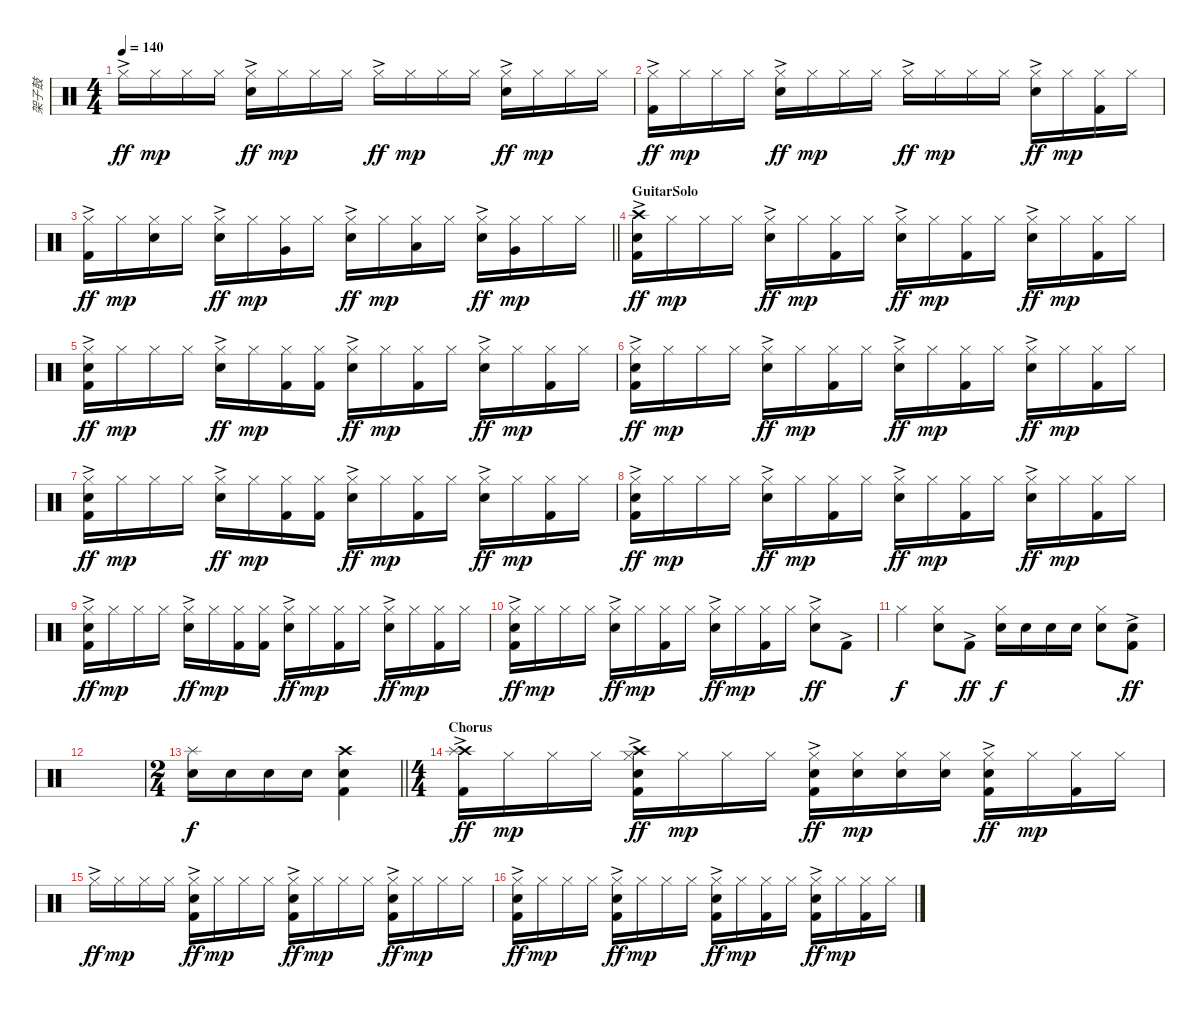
\track ("架子鼓" "架子鼓") {instrument percussion}
\staff {score}
\articulation defaults
\ts (4 4)
\tempo 140
\clef neutral
\ks c "Hi-Hat (closed)"{ac}.16{dy ff} "Hi-Hat (closed)".16{dy mp} "Hi-Hat (closed)".16 "Hi-Hat (closed)".16
("Hi-Hat (closed)"{ac} "Electric Snare (hit)").16{dy ff} "Hi-Hat (closed)".16{dy mp} "Hi-Hat (closed)".16 "Hi-Hat (closed)".16 "Hi-Hat (closed)"{ac}.16{dy ff} "Hi-Hat (closed)".16{dy mp} "Hi-Hat (closed)".16 "Hi-Hat (closed)".16 ("Hi-Hat (closed)"{ac} "Electric Snare (hit)").16{dy ff} "Hi-Hat (closed)".16{dy mp} "Hi-Hat (closed)".16 "Hi-Hat (closed)".16 |
("Hi-Hat (closed)"{ac} "Kick (hit) 2").16{dy ff} "Hi-Hat (closed)".16{dy mp} "Hi-Hat (closed)".16 "Hi-Hat (closed)".16 ("Hi-Hat (closed)"{ac} "Electric Snare (hit)").16{dy ff} "Hi-Hat (closed)".16{dy mp} "Hi-Hat (closed)".16 "Hi-Hat (closed)".16 "Hi-Hat (closed)"{ac}.16{dy ff} "Hi-Hat (closed)".16{dy mp} "Hi-Hat (closed)".16 "Hi-Hat (closed)".16 ("Hi-Hat (closed)"{ac} "Electric Snare (hit)").16{dy ff} "Hi-Hat (closed)".16{dy mp} ("Hi-Hat (closed)" "Kick (hit) 2").16 "Hi-Hat (closed)".16 |
\barLineRight lightlight
("Hi-Hat (closed)"{ac} "Kick (hit) 2").16{dy ff} "Hi-Hat (closed)".16{dy mp} ("Hi-Hat (closed)" "Electric Snare (hit)").16 "Hi-Hat (closed)".16 ("Hi-Hat (closed)"{ac} "Electric Snare (hit)").16{dy ff} "Hi-Hat (closed)".16{dy mp} ("Hi-Hat (closed)" "Very Low Tom (hit)").16 "Hi-Hat (closed)".16 ("Hi-Hat (closed)"{ac} "Electric Snare (hit)").16{dy ff} "Hi-Hat (closed)".16{dy mp} ("Hi-Hat (closed)" "Low Tom (hit)").16 "Hi-Hat (closed)".16 ("Hi-Hat (closed)"{ac} "Electric Snare (hit)").16{dy ff} ("Hi-Hat (closed)" "Very Low Tom (hit)").16{dy mp} "Hi-Hat (closed)".16 "Hi-Hat (closed)".16 |
\section ("" "GuitarSolo")
("Crash high (hit)"{ac} "Electric Snare (hit)" "Kick (hit) 2").16{dy ff} "Hi-Hat (closed)".16{dy mp} "Hi-Hat (closed)".16 "Hi-Hat (closed)".16 ("Hi-Hat (closed)"{ac} "Electric Snare (hit)").16{dy ff} "Hi-Hat (closed)".16{dy mp} ("Hi-Hat (closed)" "Kick (hit) 2").16 "Hi-Hat (closed)".16 ("Hi-Hat (closed)"{ac} "Electric Snare (hit)").16{dy ff} "Hi-Hat (closed)".16{dy mp} ("Hi-Hat (closed)" "Kick (hit) 2").16 "Hi-Hat (closed)".16 ("Hi-Hat (closed)"{ac} "Electric Snare (hit)").16{dy ff} "Hi-Hat (closed)".16{dy mp} ("Hi-Hat (closed)" "Kick (hit) 2").16 "Hi-Hat (closed)".16 |
("Hi-Hat (closed)"{ac} "Electric Snare (hit)" "Kick (hit) 2").16{dy ff} "Hi-Hat (closed)".16{dy mp} "Hi-Hat (closed)".16 "Hi-Hat (closed)".16 ("Hi-Hat (closed)"{ac} "Electric Snare (hit)").16{dy ff} "Hi-Hat (closed)".16{dy mp} ("Hi-Hat (closed)" "Kick (hit) 2").16 ("Hi-Hat (closed)" "Kick (hit) 2").16 ("Hi-Hat (closed)"{ac} "Electric Snare (hit)").16{dy ff} "Hi-Hat (closed)".16{dy mp} ("Hi-Hat (closed)" "Kick (hit) 2").16 "Hi-Hat (closed)".16 ("Hi-Hat (closed)"{ac} "Electric Snare (hit)").16{dy ff} "Hi-Hat (closed)".16{dy mp} ("Hi-Hat (closed)" "Kick (hit) 2").16 "Hi-Hat (closed)".16 |
("Hi-Hat (closed)"{ac} "Electric Snare (hit)" "Kick (hit) 2").16{dy ff} "Hi-Hat (closed)".16{dy mp} "Hi-Hat (closed)".16 "Hi-Hat (closed)".16 ("Hi-Hat (closed)"{ac} "Electric Snare (hit)").16{dy ff} "Hi-Hat (closed)".16{dy mp} ("Hi-Hat (closed)" "Kick (hit) 2").16 "Hi-Hat (closed)".16 ("Hi-Hat (closed)"{ac} "Electric Snare (hit)").16{dy ff} "Hi-Hat (closed)".16{dy mp} ("Hi-Hat (closed)" "Kick (hit) 2").16 "Hi-Hat (closed)".16 ("Hi-Hat (closed)"{ac} "Electric Snare (hit)").16{dy ff} "Hi-Hat (closed)".16{dy mp} ("Hi-Hat (closed)" "Kick (hit) 2").16 "Hi-Hat (closed)".16 |
("Hi-Hat (closed)"{ac} "Electric Snare (hit)" "Kick (hit) 2").16{dy ff} "Hi-Hat (closed)".16{dy mp} "Hi-Hat (closed)".16 "Hi-Hat (closed)".16 ("Hi-Hat (closed)"{ac} "Electric Snare (hit)").16{dy ff} "Hi-Hat (closed)".16{dy mp} ("Hi-Hat (closed)" "Kick (hit) 2").16 ("Hi-Hat (closed)" "Kick (hit) 2").16 ("Hi-Hat (closed)"{ac} "Electric Snare (hit)").16{dy ff} "Hi-Hat (closed)".16{dy mp} ("Hi-Hat (closed)" "Kick (hit) 2").16 "Hi-Hat (closed)".16 ("Hi-Hat (closed)"{ac} "Electric Snare (hit)").16{dy ff} "Hi-Hat (closed)".16{dy mp} ("Hi-Hat (closed)" "Kick (hit) 2").16 "Hi-Hat (closed)".16 |
("Hi-Hat (closed)"{ac} "Electric Snare (hit)" "Kick (hit) 2").16{dy ff} "Hi-Hat (closed)".16{dy mp} "Hi-Hat (closed)".16 "Hi-Hat (closed)".16 ("Hi-Hat (closed)"{ac} "Electric Snare (hit)").16{dy ff} "Hi-Hat (closed)".16{dy mp} ("Hi-Hat (closed)" "Kick (hit) 2").16 "Hi-Hat (closed)".16 ("Hi-Hat (closed)"{ac} "Electric Snare (hit)").16{dy ff} "Hi-Hat (closed)".16{dy mp} ("Hi-Hat (closed)" "Kick (hit) 2").16 "Hi-Hat (closed)".16 ("Hi-Hat (closed)"{ac} "Electric Snare (hit)").16{dy ff} "Hi-Hat (closed)".16{dy mp} ("Hi-Hat (closed)" "Kick (hit) 2").16 "Hi-Hat (closed)".16 |
("Hi-Hat (closed)"{ac} "Electric Snare (hit)" "Kick (hit) 2").16{dy ff} "Hi-Hat (closed)".16{dy mp} "Hi-Hat (closed)".16 "Hi-Hat (closed)".16 ("Hi-Hat (closed)"{ac} "Electric Snare (hit)").16{dy ff} "Hi-Hat (closed)".16{dy mp} ("Hi-Hat (closed)" "Kick (hit) 2").16 ("Hi-Hat (closed)" "Kick (hit) 2").16 ("Hi-Hat (closed)"{ac} "Electric Snare (hit)").16{dy ff} "Hi-Hat (closed)".16{dy mp} ("Hi-Hat (closed)" "Kick (hit) 2").16 "Hi-Hat (closed)".16 ("Hi-Hat (closed)"{ac} "Electric Snare (hit)").16{dy ff} "Hi-Hat (closed)".16{dy mp} ("Hi-Hat (closed)" "Kick (hit) 2").16 "Hi-Hat (closed)".16 |
("Hi-Hat (closed)"{ac} "Electric Snare (hit)" "Kick (hit) 2").16{dy ff} "Hi-Hat (closed)".16{dy mp} "Hi-Hat (closed)".16 "Hi-Hat (closed)".16 ("Hi-Hat (closed)"{ac} "Electric Snare (hit)").16{dy ff} "Hi-Hat (closed)".16{dy mp} ("Hi-Hat (closed)" "Kick (hit) 2").16 "Hi-Hat (closed)".16 ("Hi-Hat (closed)"{ac} "Electric Snare (hit)").16{dy ff} "Hi-Hat (closed)".16{dy mp} ("Hi-Hat (closed)" "Kick (hit) 2").16 "Hi-Hat (closed)".16 ("Hi-Hat (closed)"{ac} "Electric Snare (hit)").8{dy ff} "Kick (hit) 2"{ac}.8 |
"Hi-Hat (closed)".4{dy f} ("Hi-Hat (closed)" "Electric Snare (hit)").8 "Kick (hit) 2"{ac}.8{dy ff} ("Hi-Hat (closed)" "Electric Snare (hit)").16{dy f} "Electric Snare (hit)".16 "Electric Snare (hit)".16 "Electric Snare (hit)".16 ("Hi-Hat (closed)" "Electric Snare (hit)").8 ("Electric Snare (hit)" "Kick (hit) 2"{ac}).8{dy ff} |
|
\ts (2 4)
\barLineRight lightlight
("Splash (hit)" "Electric Snare (hit)").16{dy f} "Electric Snare (hit)".16 "Electric Snare (hit)".16 "Electric Snare (hit)".16 ("Crash high (hit)" "Electric Snare (hit)" "Kick (hit) 2").4 |
\ts (4 4)
\section ("" "Chorus")
("Crash high (hit)"{ac} "Splash (hit)" "Kick (hit) 2").16{dy ff} "Hi-Hat (closed)".16{dy mp} "Hi-Hat (closed)".16 "Hi-Hat (closed)".16 ("Hi-Hat (closed)"{ac} "Electric Snare (hit)" "Crash high (hit)" "Kick (hit) 2").16{dy ff} "Hi-Hat (closed)".16{dy mp} "Hi-Hat (closed)".16 "Hi-Hat (closed)".16 ("Hi-Hat (closed)"{ac} "Electric Snare (hit)" "Kick (hit) 2").16{dy ff} ("Hi-Hat (closed)" "Electric Snare (hit)").16{dy mp} ("Hi-Hat (closed)" "Electric Snare (hit)").16 ("Hi-Hat (closed)" "Electric Snare (hit)").16 ("Hi-Hat (closed)"{ac} "Electric Snare (hit)" "Kick (hit) 2").16{dy ff} "Hi-Hat (closed)".16{dy mp} ("Hi-Hat (closed)" "Kick (hit) 2").16 "Hi-Hat (closed)".16 |
"Hi-Hat (closed)"{ac}.16{dy ff} "Hi-Hat (closed)".16{dy mp} "Hi-Hat (closed)".16 "Hi-Hat (closed)".16 ("Hi-Hat (closed)"{ac} "Electric Snare (hit)" "Kick (hit) 2").16{dy ff} "Hi-Hat (closed)".16{dy mp} "Hi-Hat (closed)".16 "Hi-Hat (closed)".16 ("Hi-Hat (closed)"{ac} "Electric Snare (hit)" "Kick (hit) 2").16{dy ff} "Hi-Hat (closed)".16{dy mp} "Hi-Hat (closed)".16 "Hi-Hat (closed)".16 ("Hi-Hat (closed)"{ac} "Electric Snare (hit)" "Kick (hit) 2").16{dy ff} "Hi-Hat (closed)".16{dy mp} "Hi-Hat (closed)".16 "Hi-Hat (closed)".16 |
("Hi-Hat (closed)"{ac} "Electric Snare (hit)" "Kick (hit) 2").16{dy ff} "Hi-Hat (closed)".16{dy mp} "Hi-Hat (closed)".16 "Hi-Hat (closed)".16 ("Hi-Hat (closed)"{ac} "Electric Snare (hit)" "Kick (hit) 2").16{dy ff} "Hi-Hat (closed)".16{dy mp} "Hi-Hat (closed)".16 "Hi-Hat (closed)".16 ("Hi-Hat (closed)"{ac} "Electric Snare (hit)" "Kick (hit) 2").16{dy ff} "Hi-Hat (closed)".16{dy mp} ("Hi-Hat (closed)" "Kick (hit) 2").16 "Hi-Hat (closed)".16 ("Hi-Hat (closed)"{ac} "Electric Snare (hit)" "Kick (hit) 2").16{dy ff} "Hi-Hat (closed)".16{dy mp} ("Hi-Hat (closed)" "Kick (hit) 2").16 "Hi-Hat (closed)".16
